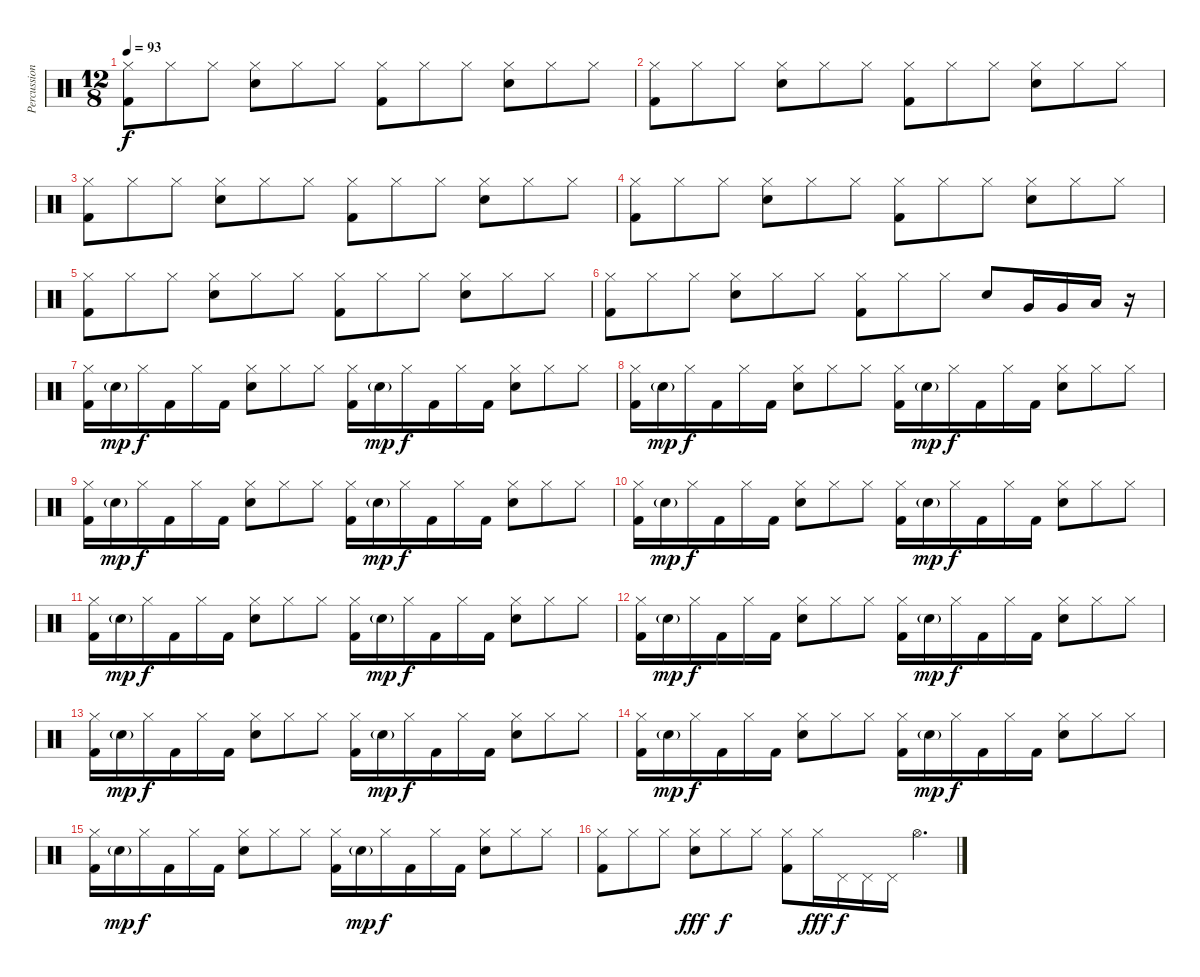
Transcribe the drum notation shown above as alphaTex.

\track ("Percussion" "Percussion") {instrument percussion}
\staff {score}
\articulation defaults
\ts (12 8)
\tempo 93
\clef neutral
\ks c
("Hi-Hat (closed)" "Kick (hit) 2").8{dy f} "Hi-Hat (closed)".8 "Hi-Hat (closed)".8 ("Hi-Hat (closed)" "Snare (hit) 2").8 "Hi-Hat (closed)".8 "Hi-Hat (closed)".8 ("Hi-Hat (closed)" "Kick (hit) 2").8 "Hi-Hat (closed)".8 "Hi-Hat (closed)".8 ("Hi-Hat (closed)" "Snare (hit) 2").8 "Hi-Hat (closed)".8 "Hi-Hat (closed)".8 |
("Hi-Hat (closed)" "Kick (hit) 2").8 "Hi-Hat (closed)".8 "Hi-Hat (closed)".8 ("Hi-Hat (closed)" "Snare (hit) 2").8 "Hi-Hat (closed)".8 "Hi-Hat (closed)".8 ("Hi-Hat (closed)" "Kick (hit) 2").8 "Hi-Hat (closed)".8 "Hi-Hat (closed)".8 ("Hi-Hat (closed)" "Snare (hit) 2").8 "Hi-Hat (closed)".8 "Hi-Hat (closed)".8 |
("Hi-Hat (closed)" "Kick (hit) 2").8 "Hi-Hat (closed)".8 "Hi-Hat (closed)".8 ("Hi-Hat (closed)" "Snare (hit) 2").8 "Hi-Hat (closed)".8 "Hi-Hat (closed)".8 ("Hi-Hat (closed)" "Kick (hit) 2").8 "Hi-Hat (closed)".8 "Hi-Hat (closed)".8 ("Hi-Hat (closed)" "Snare (hit) 2").8 "Hi-Hat (closed)".8 "Hi-Hat (closed)".8 |
("Hi-Hat (closed)" "Kick (hit) 2").8 "Hi-Hat (closed)".8 "Hi-Hat (closed)".8 ("Hi-Hat (closed)" "Snare (hit) 2").8 "Hi-Hat (closed)".8 "Hi-Hat (closed)".8 ("Hi-Hat (closed)" "Kick (hit) 2").8 "Hi-Hat (closed)".8 "Hi-Hat (closed)".8 ("Hi-Hat (closed)" "Snare (hit) 2").8 "Hi-Hat (closed)".8 "Hi-Hat (closed)".8 |
("Hi-Hat (closed)" "Kick (hit) 2").8 "Hi-Hat (closed)".8 "Hi-Hat (closed)".8 ("Hi-Hat (closed)" "Snare (hit) 2").8 "Hi-Hat (closed)".8 "Hi-Hat (closed)".8 ("Hi-Hat (closed)" "Kick (hit) 2").8 "Hi-Hat (closed)".8 "Hi-Hat (closed)".8 ("Hi-Hat (closed)" "Snare (hit) 2").8 "Hi-Hat (closed)".8 "Hi-Hat (closed)".8 |
("Hi-Hat (closed)" "Kick (hit) 2").8 "Hi-Hat (closed)".8 "Hi-Hat (closed)".8 ("Hi-Hat (closed)" "Snare (hit) 2").8 "Hi-Hat (closed)".8 "Hi-Hat (closed)".8 ("Hi-Hat (closed)" "Kick (hit) 2").8 "Hi-Hat (closed)".8 "Hi-Hat (closed)".8 "Hand Clap (hit)".8 "Very Low Tom (hit)".16 "Very Low Tom (hit)".16 "Low Floor Tom (hit)".16 r.16 |
("Hi-Hat (closed)" "Kick (hit) 2").16 "Snare (hit) 2"{g}.16{dy mp} "Hi-Hat (closed)".16{dy f} "Kick (hit) 2".16 "Hi-Hat (closed)".16 "Kick (hit) 2".16 ("Hi-Hat (closed)" "Snare (hit) 2").8 "Hi-Hat (closed)".8 "Hi-Hat (closed)".8 ("Hi-Hat (closed)" "Kick (hit) 2").16 "Snare (hit) 2"{g}.16{dy mp} "Hi-Hat (closed)".16{dy f} "Kick (hit) 2".16 "Hi-Hat (closed)".16 "Kick (hit) 2".16 ("Hi-Hat (closed)" "Snare (hit) 2").8 "Hi-Hat (closed)".8 "Hi-Hat (closed)".8 |
("Hi-Hat (closed)" "Kick (hit) 2").16 "Snare (hit) 2"{g}.16{dy mp} "Hi-Hat (closed)".16{dy f} "Kick (hit) 2".16 "Hi-Hat (closed)".16 "Kick (hit) 2".16 ("Hi-Hat (closed)" "Snare (hit) 2").8 "Hi-Hat (closed)".8 "Hi-Hat (closed)".8 ("Hi-Hat (closed)" "Kick (hit) 2").16 "Snare (hit) 2"{g}.16{dy mp} "Hi-Hat (closed)".16{dy f} "Kick (hit) 2".16 "Hi-Hat (closed)".16 "Kick (hit) 2".16 ("Hi-Hat (closed)" "Snare (hit) 2").8 "Hi-Hat (closed)".8 "Hi-Hat (closed)".8 |
("Hi-Hat (closed)" "Kick (hit) 2").16 "Snare (hit) 2"{g}.16{dy mp} "Hi-Hat (closed)".16{dy f} "Kick (hit) 2".16 "Hi-Hat (closed)".16 "Kick (hit) 2".16 ("Hi-Hat (closed)" "Snare (hit) 2").8 "Hi-Hat (closed)".8 "Hi-Hat (closed)".8 ("Hi-Hat (closed)" "Kick (hit) 2").16 "Snare (hit) 2"{g}.16{dy mp} "Hi-Hat (closed)".16{dy f} "Kick (hit) 2".16 "Hi-Hat (closed)".16 "Kick (hit) 2".16 ("Hi-Hat (closed)" "Snare (hit) 2").8 "Hi-Hat (closed)".8 "Hi-Hat (closed)".8 |
("Hi-Hat (closed)" "Kick (hit) 2").16 "Snare (hit) 2"{g}.16{dy mp} "Hi-Hat (closed)".16{dy f} "Kick (hit) 2".16 "Hi-Hat (closed)".16 "Kick (hit) 2".16 ("Hi-Hat (closed)" "Snare (hit) 2").8 "Hi-Hat (closed)".8 "Hi-Hat (closed)".8 ("Hi-Hat (closed)" "Kick (hit) 2").16 "Snare (hit) 2"{g}.16{dy mp} "Hi-Hat (closed)".16{dy f} "Kick (hit) 2".16 "Hi-Hat (closed)".16 "Kick (hit) 2".16 ("Hi-Hat (closed)" "Snare (hit) 2").8 "Hi-Hat (closed)".8 "Hi-Hat (closed)".8 |
("Hi-Hat (closed)" "Kick (hit) 2").16 "Snare (hit) 2"{g}.16{dy mp} "Hi-Hat (closed)".16{dy f} "Kick (hit) 2".16 "Hi-Hat (closed)".16 "Kick (hit) 2".16 ("Hi-Hat (closed)" "Snare (hit) 2").8 "Hi-Hat (closed)".8 "Hi-Hat (closed)".8 ("Hi-Hat (closed)" "Kick (hit) 2").16 "Snare (hit) 2"{g}.16{dy mp} "Hi-Hat (closed)".16{dy f} "Kick (hit) 2".16 "Hi-Hat (closed)".16 "Kick (hit) 2".16 ("Hi-Hat (closed)" "Snare (hit) 2").8 "Hi-Hat (closed)".8 "Hi-Hat (closed)".8 |
("Hi-Hat (closed)" "Kick (hit) 2").16 "Snare (hit) 2"{g}.16{dy mp} "Hi-Hat (closed)".16{dy f} "Kick (hit) 2".16 "Hi-Hat (closed)".16 "Kick (hit) 2".16 ("Hi-Hat (closed)" "Snare (hit) 2").8 "Hi-Hat (closed)".8 "Hi-Hat (closed)".8 ("Hi-Hat (closed)" "Kick (hit) 2").16 "Snare (hit) 2"{g}.16{dy mp} "Hi-Hat (closed)".16{dy f} "Kick (hit) 2".16 "Hi-Hat (closed)".16 "Kick (hit) 2".16 ("Hi-Hat (closed)" "Snare (hit) 2").8 "Hi-Hat (closed)".8 "Hi-Hat (closed)".8 |
("Hi-Hat (closed)" "Kick (hit) 2").16 "Snare (hit) 2"{g}.16{dy mp} "Hi-Hat (closed)".16{dy f} "Kick (hit) 2".16 "Hi-Hat (closed)".16 "Kick (hit) 2".16 ("Hi-Hat (closed)" "Snare (hit) 2").8 "Hi-Hat (closed)".8 "Hi-Hat (closed)".8 ("Hi-Hat (closed)" "Kick (hit) 2").16 "Snare (hit) 2"{g}.16{dy mp} "Hi-Hat (closed)".16{dy f} "Kick (hit) 2".16 "Hi-Hat (closed)".16 "Kick (hit) 2".16 ("Hi-Hat (closed)" "Snare (hit) 2").8 "Hi-Hat (closed)".8 "Hi-Hat (closed)".8 |
("Hi-Hat (closed)" "Kick (hit) 2").16 "Snare (hit) 2"{g}.16{dy mp} "Hi-Hat (closed)".16{dy f} "Kick (hit) 2".16 "Hi-Hat (closed)".16 "Kick (hit) 2".16 ("Hi-Hat (closed)" "Snare (hit) 2").8 "Hi-Hat (closed)".8 "Hi-Hat (closed)".8 ("Hi-Hat (closed)" "Kick (hit) 2").16 "Snare (hit) 2"{g}.16{dy mp} "Hi-Hat (closed)".16{dy f} "Kick (hit) 2".16 "Hi-Hat (closed)".16 "Kick (hit) 2".16 ("Hi-Hat (closed)" "Snare (hit) 2").8 "Hi-Hat (closed)".8 "Hi-Hat (closed)".8 |
("Hi-Hat (closed)" "Kick (hit) 2").16 "Snare (hit) 2"{g}.16{dy mp} "Hi-Hat (closed)".16{dy f} "Kick (hit) 2".16 "Hi-Hat (closed)".16 "Kick (hit) 2".16 ("Hi-Hat (closed)" "Snare (hit) 2").8 "Hi-Hat (closed)".8 "Hi-Hat (closed)".8 ("Hi-Hat (closed)" "Kick (hit) 2").16 "Snare (hit) 2"{g}.16{dy mp} "Hi-Hat (closed)".16{dy f} "Kick (hit) 2".16 "Hi-Hat (closed)".16 "Kick (hit) 2".16 ("Hi-Hat (closed)" "Snare (hit) 2").8 "Hi-Hat (closed)".8 "Hi-Hat (closed)".8 |
("Hi-Hat (closed)" "Kick (hit) 2").8 "Hi-Hat (closed)".8 "Hi-Hat (closed)".8 ("Hi-Hat (closed)" "Snare (hit) 2").8{dy fff} "Hi-Hat (closed)".8{dy f} "Hi-Hat (closed)".8 ("Hi-Hat (closed)" "Kick (hit) 2").8 "Hi-Hat (closed)".16{dy fff} "Pedal Hi-Hat (hit)".16{dy f} "Pedal Hi-Hat (hit)".16 "Pedal Hi-Hat (hit)".16 "Hi-Hat (open)".4{d}
